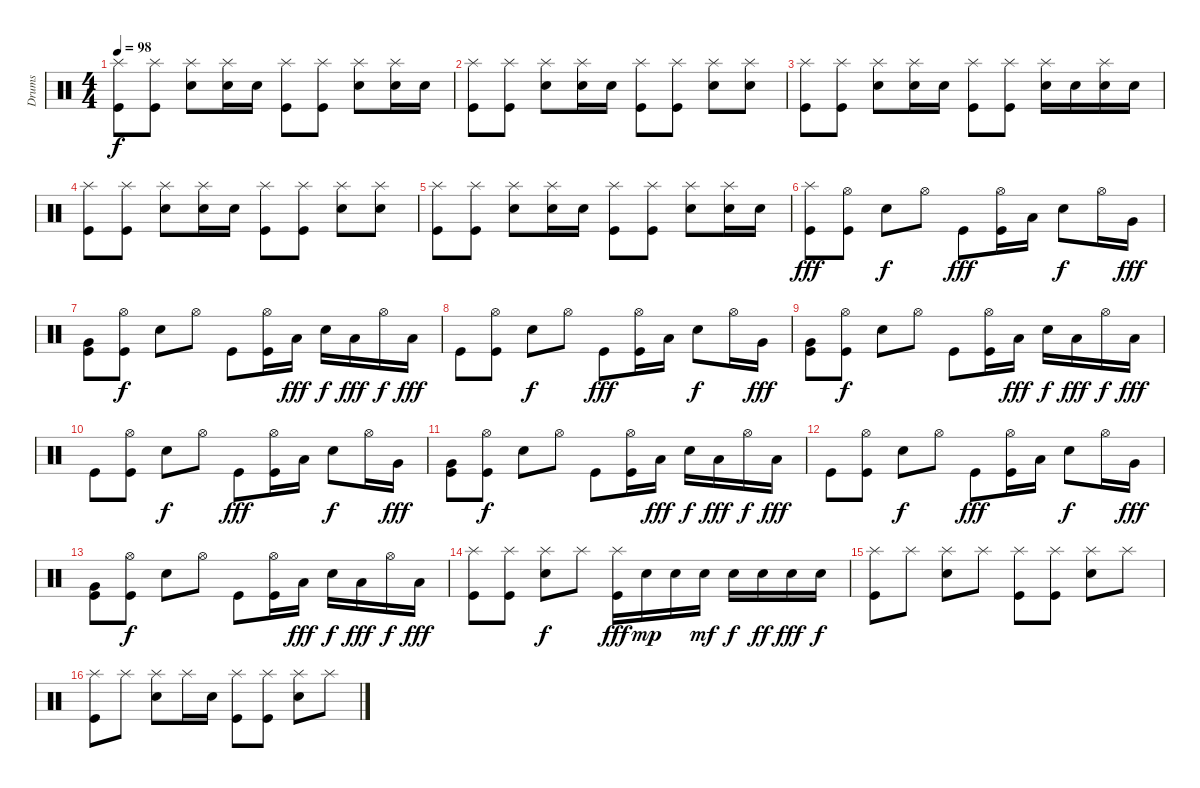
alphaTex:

\track ("Drums" "Drums") {instrument percussion}
\staff {score}
\articulation defaults
\ts (4 4)
\tempo 98
\clef neutral
\ks c
("Splash (hit)" "Kick (hit)").8{dy f} ("Splash (hit)" "Kick (hit)").8 ("Splash (hit)" "Snare (hit) 2").8 ("Splash (hit)" "Snare (hit) 2").16 "Snare (hit) 2".16 ("Splash (hit)" "Kick (hit)").8 ("Splash (hit)" "Kick (hit)").8 ("Splash (hit)" "Snare (hit) 2").8 ("Splash (hit)" "Snare (hit) 2").16 "Snare (hit) 2".16 |
("Splash (hit)" "Kick (hit)").8 ("Splash (hit)" "Kick (hit)").8 ("Splash (hit)" "Snare (hit) 2").8 ("Splash (hit)" "Snare (hit) 2").16 "Snare (hit) 2".16 ("Splash (hit)" "Kick (hit)").8 ("Splash (hit)" "Kick (hit)").8 ("Splash (hit)" "Snare (hit) 2").8 ("Splash (hit)" "Snare (hit) 2").8 |
("Splash (hit)" "Kick (hit)").8 ("Splash (hit)" "Kick (hit)").8 ("Splash (hit)" "Snare (hit) 2").8 ("Splash (hit)" "Snare (hit) 2").16 "Snare (hit) 2".16 ("Splash (hit)" "Kick (hit)").8 ("Splash (hit)" "Kick (hit)").8 ("Splash (hit)" "Snare (hit) 2").16 "Snare (hit) 2".16 ("Splash (hit)" "Snare (hit) 2").16 "Snare (hit) 2".16 |
("Splash (hit)" "Kick (hit)").8 ("Splash (hit)" "Kick (hit)").8 ("Splash (hit)" "Snare (hit) 2").8 ("Splash (hit)" "Snare (hit) 2").16 "Snare (hit) 2".16 ("Splash (hit)" "Kick (hit)").8 ("Splash (hit)" "Kick (hit)").8 ("Splash (hit)" "Snare (hit) 2").8 ("Splash (hit)" "Snare (hit) 2").8 |
("Splash (hit)" "Kick (hit)").8 ("Splash (hit)" "Kick (hit)").8 ("Splash (hit)" "Snare (hit) 2").8 ("Splash (hit)" "Snare (hit) 2").16 "Snare (hit) 2".16 ("Splash (hit)" "Kick (hit)").8 ("Splash (hit)" "Kick (hit)").8 ("Splash (hit)" "Snare (hit) 2").8 ("Splash (hit)" "Snare (hit) 2").16 "Snare (hit) 2".16 |
("Splash (hit)" "Kick (hit)").8{dy fff} ("Hi-Hat (open)" "Kick (hit)").8 "Snare (hit) 2".8{dy f} "Hi-Hat (open)".8 "Kick (hit)".8{dy fff} ("Hi-Hat (open)" "Kick (hit)").16 "Low Tom (hit)".16 "Snare (hit) 2".8{dy f} "Hi-Hat (open)".16 "Very Low Tom (hit)".16{dy fff} |
("Very Low Tom (hit)" "Kick (hit)").8 ("Hi-Hat (open)" "Kick (hit)").8{dy f} "Snare (hit) 2".8 "Hi-Hat (open)".8 "Kick (hit)".8 ("Hi-Hat (open)" "Kick (hit)").16 "Low Tom (hit)".16{dy fff} "Snare (hit) 2".16{dy f} "Low Tom (hit)".16{dy fff} "Hi-Hat (open)".16{dy f} "Low Tom (hit)".16{dy fff} |
"Kick (hit)".8 ("Hi-Hat (open)" "Kick (hit)").8 "Snare (hit) 2".8{dy f} "Hi-Hat (open)".8 "Kick (hit)".8{dy fff} ("Hi-Hat (open)" "Kick (hit)").16 "Low Tom (hit)".16 "Snare (hit) 2".8{dy f} "Hi-Hat (open)".16 "Very Low Tom (hit)".16{dy fff} |
("Very Low Tom (hit)" "Kick (hit)").8 ("Hi-Hat (open)" "Kick (hit)").8{dy f} "Snare (hit) 2".8 "Hi-Hat (open)".8 "Kick (hit)".8 ("Hi-Hat (open)" "Kick (hit)").16 "Low Tom (hit)".16{dy fff} "Snare (hit) 2".16{dy f} "Low Tom (hit)".16{dy fff} "Hi-Hat (open)".16{dy f} "Low Tom (hit)".16{dy fff} |
"Kick (hit)".8 ("Hi-Hat (open)" "Kick (hit)").8 "Snare (hit) 2".8{dy f} "Hi-Hat (open)".8 "Kick (hit)".8{dy fff} ("Hi-Hat (open)" "Kick (hit)").16 "Low Tom (hit)".16 "Snare (hit) 2".8{dy f} "Hi-Hat (open)".16 "Very Low Tom (hit)".16{dy fff} |
("Very Low Tom (hit)" "Kick (hit)").8 ("Hi-Hat (open)" "Kick (hit)").8{dy f} "Snare (hit) 2".8 "Hi-Hat (open)".8 "Kick (hit)".8 ("Hi-Hat (open)" "Kick (hit)").16 "Low Tom (hit)".16{dy fff} "Snare (hit) 2".16{dy f} "Low Tom (hit)".16{dy fff} "Hi-Hat (open)".16{dy f} "Low Tom (hit)".16{dy fff} |
"Kick (hit)".8 ("Hi-Hat (open)" "Kick (hit)").8 "Snare (hit) 2".8{dy f} "Hi-Hat (open)".8 "Kick (hit)".8{dy fff} ("Hi-Hat (open)" "Kick (hit)").16 "Low Tom (hit)".16 "Snare (hit) 2".8{dy f} "Hi-Hat (open)".16 "Very Low Tom (hit)".16{dy fff} |
("Very Low Tom (hit)" "Kick (hit)").8 ("Hi-Hat (open)" "Kick (hit)").8{dy f} "Snare (hit) 2".8 "Hi-Hat (open)".8 "Kick (hit)".8 ("Hi-Hat (open)" "Kick (hit)").16 "Low Tom (hit)".16{dy fff} "Snare (hit) 2".16{dy f} "Low Tom (hit)".16{dy fff} "Hi-Hat (open)".16{dy f} "Low Tom (hit)".16{dy fff} |
("Splash (hit)" "Kick (hit)").8 ("Splash (hit)" "Kick (hit)").8 ("Splash (hit)" "Snare (hit) 2").8{dy f} "Splash (hit)".8 ("Splash (hit)" "Kick (hit)").16{dy fff} "Snare (hit) 2".16{dy mp} "Snare (hit) 2".16 "Snare (hit) 2".16{dy mf} "Snare (hit) 2".16{dy f} "Snare (hit) 2".16{dy ff} "Snare (hit) 2".16{dy fff} "Snare (hit) 2".16{dy f} |
("Splash (hit)" "Kick (hit)").8 "Splash (hit)".8 ("Splash (hit)" "Snare (hit) 2").8 "Splash (hit)".8 ("Splash (hit)" "Kick (hit)").8 ("Splash (hit)" "Kick (hit)").8 ("Splash (hit)" "Snare (hit) 2").8 "Splash (hit)".8 |
("Splash (hit)" "Kick (hit)").8 "Splash (hit)".8 ("Splash (hit)" "Snare (hit) 2").8 "Splash (hit)".16 "Snare (hit) 2".16 ("Splash (hit)" "Kick (hit)").8 ("Splash (hit)" "Kick (hit)").8 ("Splash (hit)" "Snare (hit) 2").8 "Splash (hit)".8
